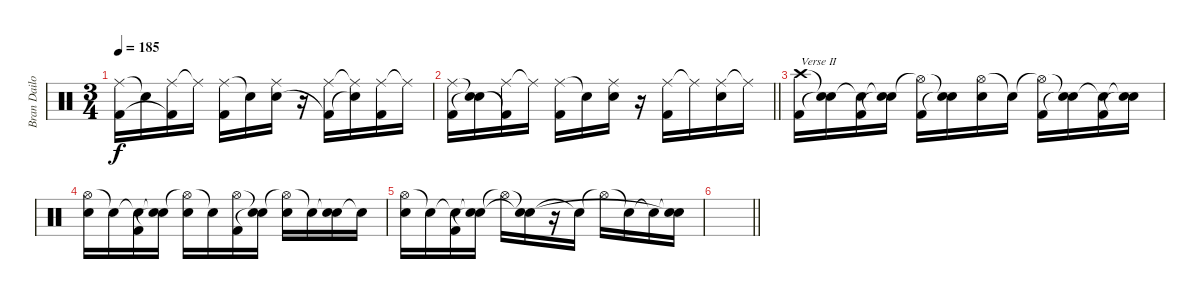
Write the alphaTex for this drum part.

\track ("Bran Dailor" "Bran Dailo") {instrument percussion}
\staff {score}
\articulation defaults
\ts (3 4)
\tempo 185
\clef neutral
\ks c
("Ride (middle)" "Kick (hit) 2").16{dy f} "Snare (hit)"{t}.16 ("Ride (middle)" "Kick (hit) 2"{t}).16 "Ride (middle)"{t}.16 ("Ride (middle)" "Kick (hit) 2").16 "Snare (hit)"{t}.16 ("Ride (middle)" "Electric Snare (hit)").16 r.16 ("Ride (middle)" "Kick (hit) 2"{t}).16 ("Ride (middle)"{t} "Snare (hit)"{t}).16 ("Ride (middle)" "Kick (hit) 2").16 "Ride (middle)"{t}.16 |
\barLineRight lightlight
("Ride (middle)" "Kick (hit) 2").16 ("Snare (hit)"{t} "Snare (hit)"{t}).16 ("Ride (middle)" "Kick (hit) 2"{t}).16 "Ride (middle)"{t}.16 ("Ride (middle)" "Kick (hit) 2").16 "Snare (hit)"{t}.16 ("Ride (middle)" "Electric Snare (hit)").16 r.16 ("Ride (middle)" "Kick (hit) 2").16 "Ride (middle)"{t}.16 ("Ride (middle)" "Electric Snare (hit)").16 "Ride (middle)"{t}.16 |
("Crash high (hit)" "Kick (hit) 2").16{txt "Verse II"} ("Snare (hit)"{t} "Snare (hit)"{t}).16 ("Snare (hit)"{t} "Kick (hit) 2").16 ("Snare (hit)"{t} "Snare (hit)"{t}).16 ("Hi-Hat (open)"{t} "Kick (hit) 2").16 ("Snare (hit)"{t} "Snare (hit)"{t}).16 ("Hi-Hat (open)" "Electric Snare (hit)").16 "Snare (hit)"{t}.16 ("Hi-Hat (open)"{t} "Kick (hit) 2").16 ("Snare (hit)"{t} "Snare (hit)"{t}).16 ("Snare (hit)"{t} "Kick (hit) 2").16 ("Snare (hit)"{t} "Snare (hit)"{t}).16 |
("Hi-Hat (open)" "Electric Snare (hit)").16 "Snare (hit)"{t}.16 ("Snare (hit)"{t} "Kick (hit) 2").16 ("Snare (hit)"{t} "Snare (hit)"{t}).16 ("Hi-Hat (open)"{t} "Electric Snare (hit)").16 "Snare (hit)"{t}.16 ("Hi-Hat (open)" "Kick (hit) 2").16 ("Snare (hit)"{t} "Snare (hit)"{t}).16 ("Hi-Hat (open)"{t} "Electric Snare (hit)").16 "Snare (hit)"{t}.16 ("Snare (hit)"{t} "Electric Snare (hit)").16 "Snare (hit)"{t}.16 |
("Hi-Hat (open)" "Electric Snare (hit)").16 "Snare (hit)"{t}.16 ("Snare (hit)"{t} "Kick (hit) 2").16 ("Snare (hit)"{t} "Snare (hit)"{t}).16 "Hi-Hat (open)"{t}.16 ("Snare (hit)"{t} "Snare (hit)"{t}).16 r.16 "Snare (hit)"{t}.16 "Hi-Hat (open)"{t}.16 "Snare (hit)"{t}.16 "Snare (hit)"{t}.16 ("Snare (hit)"{t} "Snare (hit)"{t}).16 |
\barLineRight lightlight
